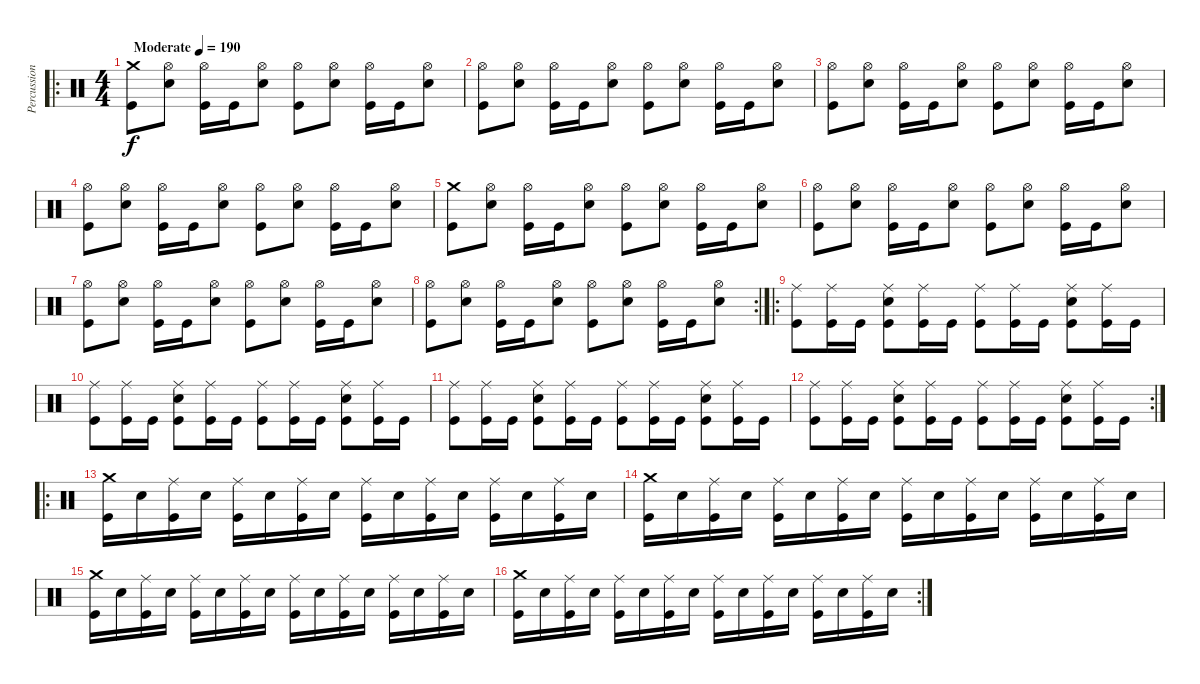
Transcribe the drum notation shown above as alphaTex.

\track ("Percussion" "Percussion") {instrument percussion}
\staff {score}
\articulation defaults
\ro
\ts (4 4)
\tempo (190 "Moderate")
\clef neutral
\ks c
("Crash medium (hit)" "Kick (hit)").8{dy f} ("Hi-Hat (open)" "Snare (hit) 2").8 ("Hi-Hat (open)" "Kick (hit)").16 "Kick (hit)".16 ("Hi-Hat (open)" "Snare (hit) 2").8 ("Hi-Hat (open)" "Kick (hit)").8 ("Hi-Hat (open)" "Snare (hit) 2").8 ("Hi-Hat (open)" "Kick (hit)").16 "Kick (hit)".16 ("Hi-Hat (open)" "Snare (hit) 2").8 |
("Hi-Hat (open)" "Kick (hit)").8 ("Hi-Hat (open)" "Snare (hit) 2").8 ("Hi-Hat (open)" "Kick (hit)").16 "Kick (hit)".16 ("Hi-Hat (open)" "Snare (hit) 2").8 ("Hi-Hat (open)" "Kick (hit)").8 ("Hi-Hat (open)" "Snare (hit) 2").8 ("Hi-Hat (open)" "Kick (hit)").16 "Kick (hit)".16 ("Hi-Hat (open)" "Snare (hit) 2").8 |
("Hi-Hat (open)" "Kick (hit)").8 ("Hi-Hat (open)" "Snare (hit) 2").8 ("Hi-Hat (open)" "Kick (hit)").16 "Kick (hit)".16 ("Hi-Hat (open)" "Snare (hit) 2").8 ("Hi-Hat (open)" "Kick (hit)").8 ("Hi-Hat (open)" "Snare (hit) 2").8 ("Hi-Hat (open)" "Kick (hit)").16 "Kick (hit)".16 ("Hi-Hat (open)" "Snare (hit) 2").8 |
("Hi-Hat (open)" "Kick (hit)").8 ("Hi-Hat (open)" "Snare (hit) 2").8 ("Hi-Hat (open)" "Kick (hit)").16 "Kick (hit)".16 ("Hi-Hat (open)" "Snare (hit) 2").8 ("Hi-Hat (open)" "Kick (hit)").8 ("Hi-Hat (open)" "Snare (hit) 2").8 ("Hi-Hat (open)" "Kick (hit)").16 "Kick (hit)".16 ("Hi-Hat (open)" "Snare (hit) 2").8 |
("Crash medium (hit)" "Kick (hit)").8 ("Hi-Hat (open)" "Snare (hit) 2").8 ("Hi-Hat (open)" "Kick (hit)").16 "Kick (hit)".16 ("Hi-Hat (open)" "Snare (hit) 2").8 ("Hi-Hat (open)" "Kick (hit)").8 ("Hi-Hat (open)" "Snare (hit) 2").8 ("Hi-Hat (open)" "Kick (hit)").16 "Kick (hit)".16 ("Hi-Hat (open)" "Snare (hit) 2").8 |
("Hi-Hat (open)" "Kick (hit)").8 ("Hi-Hat (open)" "Snare (hit) 2").8 ("Hi-Hat (open)" "Kick (hit)").16 "Kick (hit)".16 ("Hi-Hat (open)" "Snare (hit) 2").8 ("Hi-Hat (open)" "Kick (hit)").8 ("Hi-Hat (open)" "Snare (hit) 2").8 ("Hi-Hat (open)" "Kick (hit)").16 "Kick (hit)".16 ("Hi-Hat (open)" "Snare (hit) 2").8 |
("Hi-Hat (open)" "Kick (hit)").8 ("Hi-Hat (open)" "Snare (hit) 2").8 ("Hi-Hat (open)" "Kick (hit)").16 "Kick (hit)".16 ("Hi-Hat (open)" "Snare (hit) 2").8 ("Hi-Hat (open)" "Kick (hit)").8 ("Hi-Hat (open)" "Snare (hit) 2").8 ("Hi-Hat (open)" "Kick (hit)").16 "Kick (hit)".16 ("Hi-Hat (open)" "Snare (hit) 2").8 |
\rc 2
("Hi-Hat (open)" "Kick (hit)").8 ("Hi-Hat (open)" "Snare (hit) 2").8 ("Hi-Hat (open)" "Kick (hit)").16 "Kick (hit)".16 ("Hi-Hat (open)" "Snare (hit) 2").8 ("Hi-Hat (open)" "Kick (hit)").8 ("Hi-Hat (open)" "Snare (hit) 2").8 ("Hi-Hat (open)" "Kick (hit)").16 "Kick (hit)".16 ("Hi-Hat (open)" "Snare (hit) 2").8 |
\ro
("Ride (middle)" "Kick (hit)").8 ("Ride (middle)" "Kick (hit)").16 "Kick (hit)".16 ("Ride (middle)" "Snare (hit) 2" "Kick (hit)").8 ("Ride (middle)" "Kick (hit)").16 "Kick (hit)".16 ("Ride (middle)" "Kick (hit)").8 ("Ride (middle)" "Kick (hit)").16 "Kick (hit)".16 ("Ride (middle)" "Snare (hit) 2" "Kick (hit)").8 ("Ride (middle)" "Kick (hit)").16 "Kick (hit)".16 |
("Ride (middle)" "Kick (hit)").8 ("Ride (middle)" "Kick (hit)").16 "Kick (hit)".16 ("Ride (middle)" "Snare (hit) 2" "Kick (hit)").8 ("Ride (middle)" "Kick (hit)").16 "Kick (hit)".16 ("Ride (middle)" "Kick (hit)").8 ("Ride (middle)" "Kick (hit)").16 "Kick (hit)".16 ("Ride (middle)" "Snare (hit) 2" "Kick (hit)").8 ("Ride (middle)" "Kick (hit)").16 "Kick (hit)".16 |
("Ride (middle)" "Kick (hit)").8 ("Ride (middle)" "Kick (hit)").16 "Kick (hit)".16 ("Ride (middle)" "Snare (hit) 2" "Kick (hit)").8 ("Ride (middle)" "Kick (hit)").16 "Kick (hit)".16 ("Ride (middle)" "Kick (hit)").8 ("Ride (middle)" "Kick (hit)").16 "Kick (hit)".16 ("Ride (middle)" "Snare (hit) 2" "Kick (hit)").8 ("Ride (middle)" "Kick (hit)").16 "Kick (hit)".16 |
\rc 2
("Ride (middle)" "Kick (hit)").8 ("Ride (middle)" "Kick (hit)").16 "Kick (hit)".16 ("Ride (middle)" "Snare (hit) 2" "Kick (hit)").8 ("Ride (middle)" "Kick (hit)").16 "Kick (hit)".16 ("Ride (middle)" "Kick (hit)").8 ("Ride (middle)" "Kick (hit)").16 "Kick (hit)".16 ("Ride (middle)" "Snare (hit) 2" "Kick (hit)").8 ("Ride (middle)" "Kick (hit)").16 "Kick (hit)".16 |
\ro
("Crash medium (hit)" "Kick (hit)").16 "Snare (hit) 2".16 ("Ride (middle)" "Kick (hit)").16 "Snare (hit) 2".16 ("Ride (middle)" "Kick (hit)").16 "Snare (hit) 2".16 ("Ride (middle)" "Kick (hit)").16 "Snare (hit) 2".16 ("Ride (middle)" "Kick (hit)").16 "Snare (hit) 2".16 ("Ride (middle)" "Kick (hit)").16 "Snare (hit) 2".16 ("Ride (middle)" "Kick (hit)").16 "Snare (hit) 2".16 ("Ride (middle)" "Kick (hit)").16 "Snare (hit) 2".16 |
("Crash medium (hit)" "Kick (hit)").16 "Snare (hit) 2".16 ("Ride (middle)" "Kick (hit)").16 "Snare (hit) 2".16 ("Ride (middle)" "Kick (hit)").16 "Snare (hit) 2".16 ("Ride (middle)" "Kick (hit)").16 "Snare (hit) 2".16 ("Ride (middle)" "Kick (hit)").16 "Snare (hit) 2".16 ("Ride (middle)" "Kick (hit)").16 "Snare (hit) 2".16 ("Ride (middle)" "Kick (hit)").16 "Snare (hit) 2".16 ("Ride (middle)" "Kick (hit)").16 "Snare (hit) 2".16 |
("Crash medium (hit)" "Kick (hit)").16 "Snare (hit) 2".16 ("Ride (middle)" "Kick (hit)").16 "Snare (hit) 2".16 ("Ride (middle)" "Kick (hit)").16 "Snare (hit) 2".16 ("Ride (middle)" "Kick (hit)").16 "Snare (hit) 2".16 ("Ride (middle)" "Kick (hit)").16 "Snare (hit) 2".16 ("Ride (middle)" "Kick (hit)").16 "Snare (hit) 2".16 ("Ride (middle)" "Kick (hit)").16 "Snare (hit) 2".16 ("Ride (middle)" "Kick (hit)").16 "Snare (hit) 2".16 |
\rc 2
("Crash medium (hit)" "Kick (hit)").16 "Snare (hit) 2".16 ("Ride (middle)" "Kick (hit)").16 "Snare (hit) 2".16 ("Ride (middle)" "Kick (hit)").16 "Snare (hit) 2".16 ("Ride (middle)" "Kick (hit)").16 "Snare (hit) 2".16 ("Ride (middle)" "Kick (hit)").16 "Snare (hit) 2".16 ("Ride (middle)" "Kick (hit)").16 "Snare (hit) 2".16 ("Ride (middle)" "Kick (hit)").16 "Snare (hit) 2".16 ("Ride (middle)" "Kick (hit)").16 "Snare (hit) 2".16
